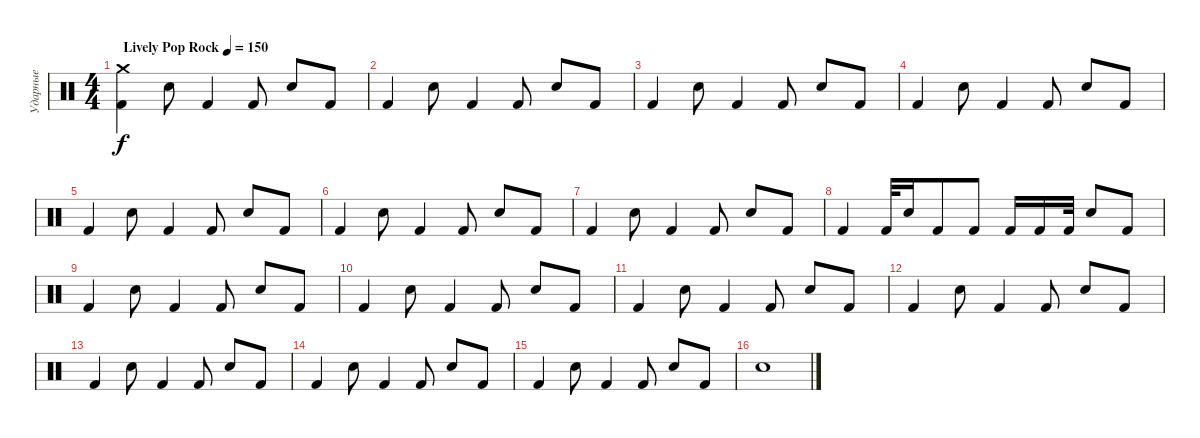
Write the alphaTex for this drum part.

\track ("Ударные" "Ударные") {instrument percussion}
\staff {score}
\articulation defaults
\ts (4 4)
\tempo (150 "Lively Pop Rock")
\clef neutral
\ks c
("Crash medium (hit)" "Kick (hit) 2").4{dy f} "Snare (hit) 2".8 "Kick (hit) 2".4 "Kick (hit) 2".8 "Snare (hit) 2".8 "Kick (hit) 2".8 |
"Kick (hit) 2".4 "Snare (hit) 2".8 "Kick (hit) 2".4 "Kick (hit) 2".8 "Snare (hit) 2".8 "Kick (hit) 2".8 |
"Kick (hit) 2".4 "Snare (hit) 2".8 "Kick (hit) 2".4 "Kick (hit) 2".8 "Snare (hit) 2".8 "Kick (hit) 2".8 |
"Kick (hit) 2".4 "Snare (hit) 2".8 "Kick (hit) 2".4 "Kick (hit) 2".8 "Snare (hit) 2".8 "Kick (hit) 2".8 |
"Kick (hit) 2".4 "Snare (hit) 2".8 "Kick (hit) 2".4 "Kick (hit) 2".8 "Snare (hit) 2".8 "Kick (hit) 2".8 |
"Kick (hit) 2".4 "Snare (hit) 2".8 "Kick (hit) 2".4 "Kick (hit) 2".8 "Snare (hit) 2".8 "Kick (hit) 2".8 |
"Kick (hit) 2".4 "Snare (hit) 2".8 "Kick (hit) 2".4 "Kick (hit) 2".8 "Snare (hit) 2".8 "Kick (hit) 2".8 |
"Kick (hit) 2".4 "Kick (hit) 2".32 "Snare (hit) 2".16 "Kick (hit) 2".8 "Kick (hit) 2".8 "Kick (hit) 2".16 "Kick (hit) 2".16 "Kick (hit) 2".32 "Snare (hit) 2".8 "Kick (hit) 2".8 |
"Kick (hit) 2".4 "Snare (hit) 2".8 "Kick (hit) 2".4 "Kick (hit) 2".8 "Snare (hit) 2".8 "Kick (hit) 2".8 |
"Kick (hit) 2".4 "Snare (hit) 2".8 "Kick (hit) 2".4 "Kick (hit) 2".8 "Snare (hit) 2".8 "Kick (hit) 2".8 |
"Kick (hit) 2".4 "Snare (hit) 2".8 "Kick (hit) 2".4 "Kick (hit) 2".8 "Snare (hit) 2".8 "Kick (hit) 2".8 |
"Kick (hit) 2".4 "Snare (hit) 2".8 "Kick (hit) 2".4 "Kick (hit) 2".8 "Snare (hit) 2".8 "Kick (hit) 2".8 |
"Kick (hit) 2".4 "Snare (hit) 2".8 "Kick (hit) 2".4 "Kick (hit) 2".8 "Snare (hit) 2".8 "Kick (hit) 2".8 |
"Kick (hit) 2".4 "Snare (hit) 2".8 "Kick (hit) 2".4 "Kick (hit) 2".8 "Snare (hit) 2".8 "Kick (hit) 2".8 |
"Kick (hit) 2".4 "Snare (hit) 2".8 "Kick (hit) 2".4 "Kick (hit) 2".8 "Snare (hit) 2".8 "Kick (hit) 2".8 |
"Snare (hit) 2".1
